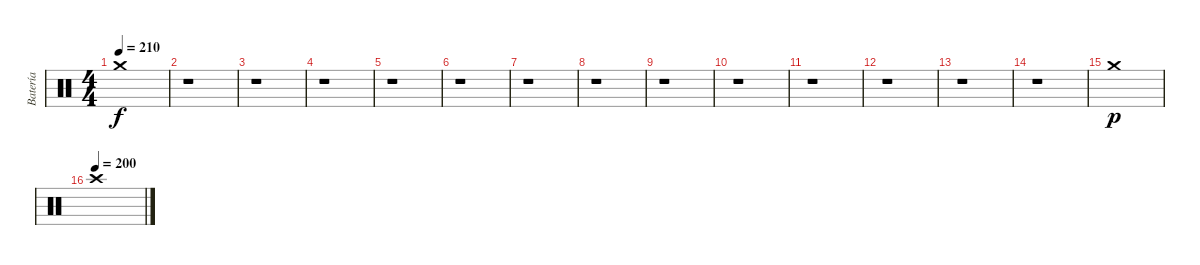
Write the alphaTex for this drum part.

\track ("Batería" "Batería") {instrument percussion}
\staff {score}
\articulation defaults
\ts (4 4)
\tempo 210
\clef neutral
\ks c "Crash medium (hit)"{t}.1{dy f}
|
r.1 |
r.1 |
r.1 |
r.1 |
r.1 |
r.1 |
r.1 |
r.1 |
r.1 |
r.1 |
r.1 |
r.1 |
r.1 |
"Crash medium (hit)".1{dy p} |
\tempo (200)
"Crash high (hit)".1
